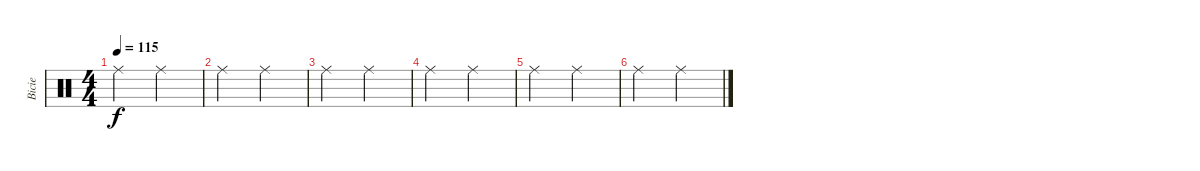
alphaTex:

\track ("Bicie" "Bicie") {instrument percussion}
\staff {score}
\articulation defaults
\ts (4 4)
\tempo 115
\clef neutral
\ks c "Ride (middle)".2{dy f} "Ride (middle)".2
|
"Ride (middle)".2 "Ride (middle)".2 |
"Ride (middle)".2 "Ride (middle)".2 |
"Ride (middle)".2 "Ride (middle)".2 |
"Ride (middle)".2 "Ride (middle)".2 |
"Ride (middle)".2 "Ride (middle)".2
